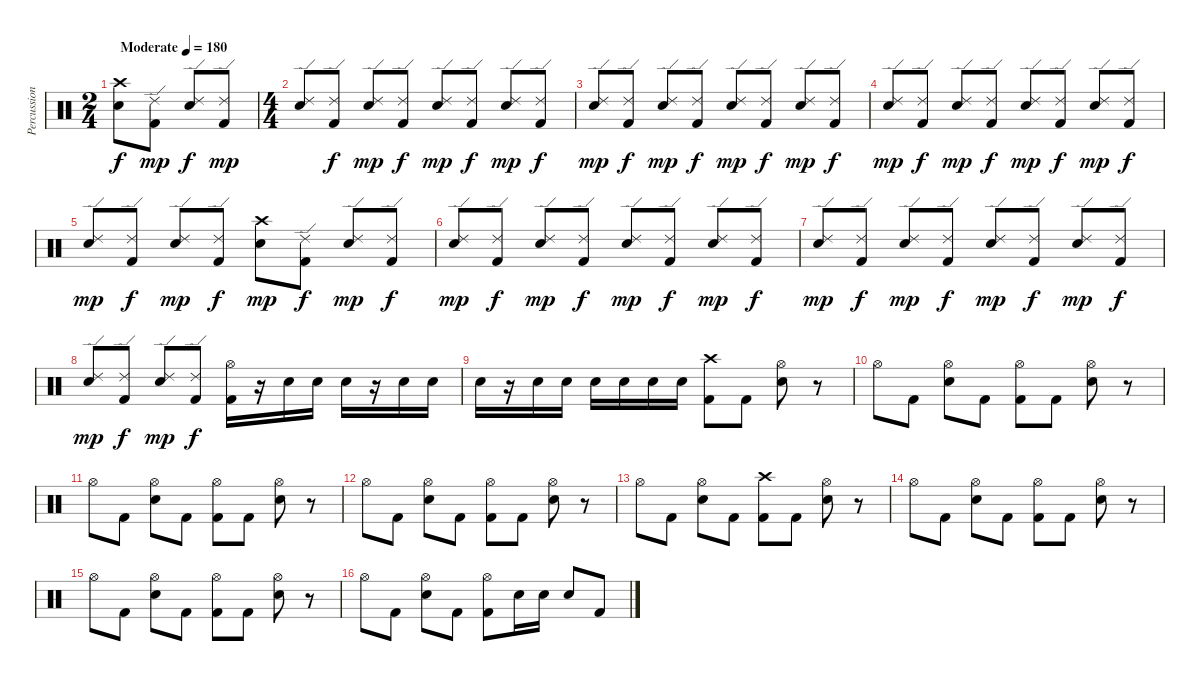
\track ("Percussion" "Percussion") {instrument percussion}
\staff {score}
\articulation defaults
\ts (2 4)
\tempo (180 "Moderate")
\clef neutral
\ks c
("Crash high (hit)" "Electric Snare (hit)").8{dy f} ("Kick (hit) 2" "Ride (edge) 2").8{dy mp} ("Ride (edge) 2" "Electric Snare (hit)").8{dy f} ("Kick (hit) 2" "Ride (edge) 2").8{dy mp} |
\ts (4 4)
("Electric Snare (hit)" "Ride (edge) 2").8 ("Ride (edge) 2" "Kick (hit) 2").8{dy f} ("Electric Snare (hit)" "Ride (edge) 2").8{dy mp} ("Ride (edge) 2" "Kick (hit) 2").8{dy f} ("Electric Snare (hit)" "Ride (edge) 2").8{dy mp} ("Ride (edge) 2" "Kick (hit) 2").8{dy f} ("Electric Snare (hit)" "Ride (edge) 2").8{dy mp} ("Ride (edge) 2" "Kick (hit) 2").8{dy f} |
("Electric Snare (hit)" "Ride (edge) 2").8{dy mp} ("Ride (edge) 2" "Kick (hit) 2").8{dy f} ("Electric Snare (hit)" "Ride (edge) 2").8{dy mp} ("Ride (edge) 2" "Kick (hit) 2").8{dy f} ("Electric Snare (hit)" "Ride (edge) 2").8{dy mp} ("Ride (edge) 2" "Kick (hit) 2").8{dy f} ("Electric Snare (hit)" "Ride (edge) 2").8{dy mp} ("Ride (edge) 2" "Kick (hit) 2").8{dy f} |
("Electric Snare (hit)" "Ride (edge) 2").8{dy mp} ("Ride (edge) 2" "Kick (hit) 2").8{dy f} ("Electric Snare (hit)" "Ride (edge) 2").8{dy mp} ("Ride (edge) 2" "Kick (hit) 2").8{dy f} ("Electric Snare (hit)" "Ride (edge) 2").8{dy mp} ("Ride (edge) 2" "Kick (hit) 2").8{dy f} ("Electric Snare (hit)" "Ride (edge) 2").8{dy mp} ("Ride (edge) 2" "Kick (hit) 2").8{dy f} |
("Electric Snare (hit)" "Ride (edge) 2").8{dy mp} ("Ride (edge) 2" "Kick (hit) 2").8{dy f} ("Electric Snare (hit)" "Ride (edge) 2").8{dy mp} ("Ride (edge) 2" "Kick (hit) 2").8{dy f} ("Electric Snare (hit)" "Crash high (hit)").8{dy mp} ("Ride (edge) 2" "Kick (hit) 2").8{dy f} ("Electric Snare (hit)" "Ride (edge) 2").8{dy mp} ("Ride (edge) 2" "Kick (hit) 2").8{dy f} |
("Electric Snare (hit)" "Ride (edge) 2").8{dy mp} ("Ride (edge) 2" "Kick (hit) 2").8{dy f} ("Electric Snare (hit)" "Ride (edge) 2").8{dy mp} ("Ride (edge) 2" "Kick (hit) 2").8{dy f} ("Electric Snare (hit)" "Ride (edge) 2").8{dy mp} ("Ride (edge) 2" "Kick (hit) 2").8{dy f} ("Electric Snare (hit)" "Ride (edge) 2").8{dy mp} ("Ride (edge) 2" "Kick (hit) 2").8{dy f} |
("Electric Snare (hit)" "Ride (edge) 2").8{dy mp} ("Ride (edge) 2" "Kick (hit) 2").8{dy f} ("Electric Snare (hit)" "Ride (edge) 2").8{dy mp} ("Ride (edge) 2" "Kick (hit) 2").8{dy f} ("Electric Snare (hit)" "Ride (edge) 2").8{dy mp} ("Ride (edge) 2" "Kick (hit) 2").8{dy f} ("Electric Snare (hit)" "Ride (edge) 2").8{dy mp} ("Ride (edge) 2" "Kick (hit) 2").8{dy f} |
("Electric Snare (hit)" "Ride (edge) 2").8{dy mp} ("Ride (edge) 2" "Kick (hit) 2").8{dy f} ("Electric Snare (hit)" "Ride (edge) 2").8{dy mp} ("Ride (edge) 2" "Kick (hit) 2").8{dy f} ("Hi-Hat (open)" "Kick (hit) 2").16 r.16 "Electric Snare (hit)".16 "Electric Snare (hit)".16 "Electric Snare (hit)".16 r.16 "Electric Snare (hit)".16 "Electric Snare (hit)".16 |
"Electric Snare (hit)".16 r.16 "Electric Snare (hit)".16 "Electric Snare (hit)".16 "Electric Snare (hit)".16 "Electric Snare (hit)".16 "Electric Snare (hit)".16 "Electric Snare (hit)".16 ("Crash high (hit)" "Kick (hit) 2").8 "Kick (hit) 2".8 ("Hi-Hat (open)" "Electric Snare (hit)").8 r.8 |
"Hi-Hat (open)".8 "Kick (hit) 2".8 ("Hi-Hat (open)" "Electric Snare (hit)").8 "Kick (hit) 2".8 ("Hi-Hat (open)" "Kick (hit) 2").8 "Kick (hit) 2".8 ("Hi-Hat (open)" "Electric Snare (hit)").8 r.8 |
"Hi-Hat (open)".8 "Kick (hit) 2".8 ("Hi-Hat (open)" "Electric Snare (hit)").8 "Kick (hit) 2".8 ("Hi-Hat (open)" "Kick (hit) 2").8 "Kick (hit) 2".8 ("Hi-Hat (open)" "Electric Snare (hit)").8 r.8 |
"Hi-Hat (open)".8 "Kick (hit) 2".8 ("Hi-Hat (open)" "Electric Snare (hit)").8 "Kick (hit) 2".8 ("Hi-Hat (open)" "Kick (hit) 2").8 "Kick (hit) 2".8 ("Hi-Hat (open)" "Electric Snare (hit)").8 r.8 |
"Hi-Hat (open)".8 "Kick (hit) 2".8 ("Hi-Hat (open)" "Electric Snare (hit)").8 "Kick (hit) 2".8 ("Crash high (hit)" "Kick (hit) 2").8 "Kick (hit) 2".8 ("Hi-Hat (open)" "Electric Snare (hit)").8 r.8 |
"Hi-Hat (open)".8 "Kick (hit) 2".8 ("Hi-Hat (open)" "Electric Snare (hit)").8 "Kick (hit) 2".8 ("Hi-Hat (open)" "Kick (hit) 2").8 "Kick (hit) 2".8 ("Hi-Hat (open)" "Electric Snare (hit)").8 r.8 |
"Hi-Hat (open)".8 "Kick (hit) 2".8 ("Hi-Hat (open)" "Electric Snare (hit)").8 "Kick (hit) 2".8 ("Hi-Hat (open)" "Kick (hit) 2").8 "Kick (hit) 2".8 ("Hi-Hat (open)" "Electric Snare (hit)").8 r.8 |
"Hi-Hat (open)".8 "Kick (hit) 2".8 ("Hi-Hat (open)" "Electric Snare (hit)").8 "Kick (hit) 2".8 ("Hi-Hat (open)" "Kick (hit) 2").8 "Electric Snare (hit)".16 "Electric Snare (hit)".16 "Electric Snare (hit)".8 "Kick (hit) 2".8
